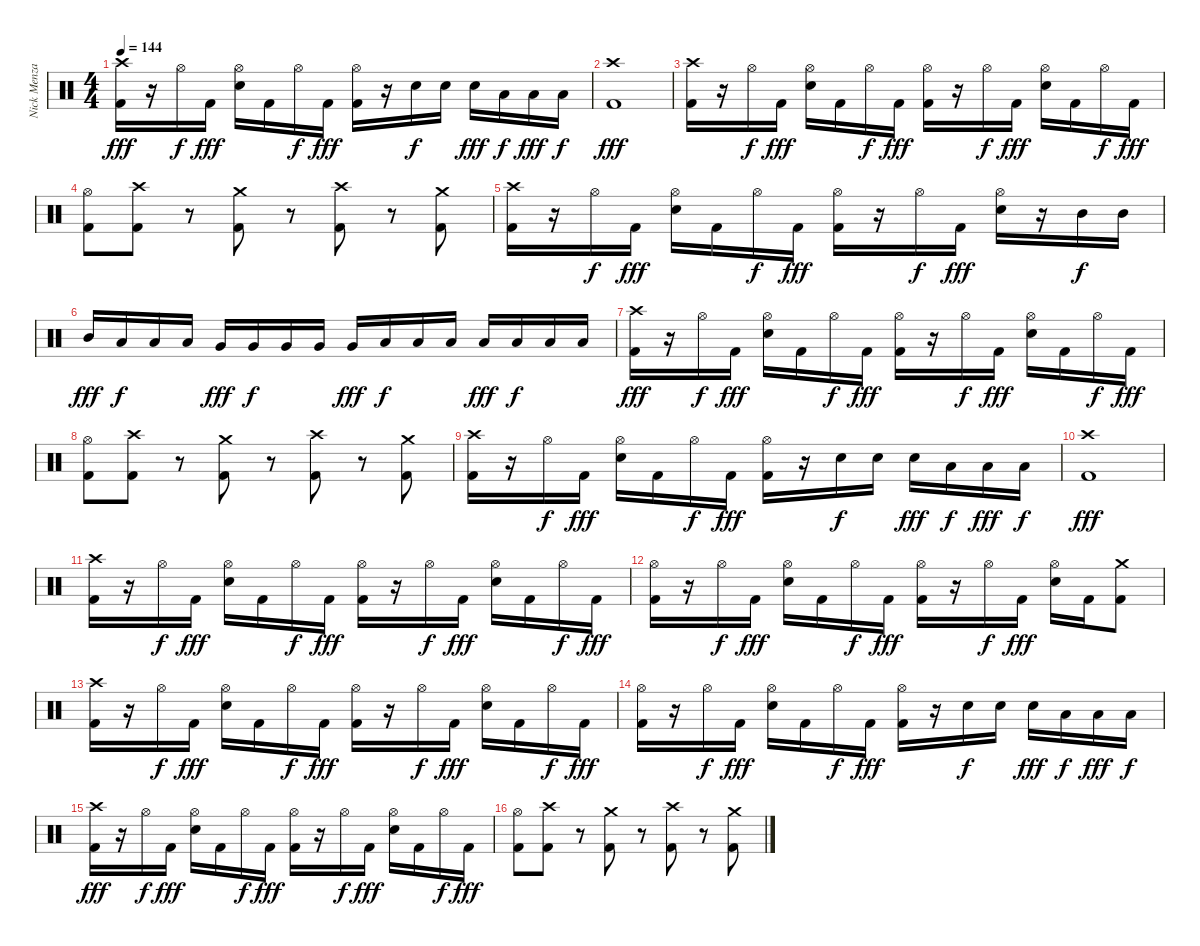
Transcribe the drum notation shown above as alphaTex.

\track ("Nick Menza" "Nick Menza") {instrument percussion}
\staff {score}
\articulation defaults
\ts (4 4)
\tempo 144
\clef neutral
\ks c
("Kick (hit) 2" "Crash high (hit)").16{dy fff} r.16 "Hi-Hat (open)".16{dy f} "Kick (hit) 2".16{dy fff} ("Electric Snare (hit)" "Hi-Hat (open)").16 "Kick (hit) 2".16 "Hi-Hat (open)".16{dy f} "Kick (hit) 2".16{dy fff} ("Kick (hit) 2" "Hi-Hat (open)").16 r.16 "Electric Snare (hit)".16{dy f} "Electric Snare (hit)".16 "Electric Snare (hit)".16{dy fff} "Low Tom (hit)".16{dy f} "Low Tom (hit)".16{dy fff} "Low Tom (hit)".16{dy f} |
("Kick (hit) 2" "Crash high (hit)").1{dy fff} |
("Kick (hit) 2" "Crash high (hit)").16 r.16 "Hi-Hat (open)".16{dy f} "Kick (hit) 2".16{dy fff} ("Electric Snare (hit)" "Hi-Hat (open)").16 "Kick (hit) 2".16 "Hi-Hat (open)".16{dy f} "Kick (hit) 2".16{dy fff} ("Kick (hit) 2" "Hi-Hat (open)").16 r.16 "Hi-Hat (open)".16{dy f} "Kick (hit) 2".16{dy fff} ("Electric Snare (hit)" "Hi-Hat (open)").16 "Kick (hit) 2".16 "Hi-Hat (open)".16{dy f} "Kick (hit) 2".16{dy fff} |
("Kick (hit) 2" "Hi-Hat (open)").8 ("Kick (hit) 2" "Crash high (hit)").8 r.8 ("Kick (hit) 2" "Crash medium (hit)").8 r.8 ("Kick (hit) 2" "Crash high (hit)").8 r.8 ("Kick (hit) 2" "Crash medium (hit)").8 |
("Kick (hit) 2" "Crash high (hit)").16 r.16 "Hi-Hat (open)".16{dy f} "Kick (hit) 2".16{dy fff} ("Electric Snare (hit)" "Hi-Hat (open)").16 "Kick (hit) 2".16 "Hi-Hat (open)".16{dy f} "Kick (hit) 2".16{dy fff} ("Kick (hit) 2" "Hi-Hat (open)").16 r.16 "Hi-Hat (open)".16{dy f} "Kick (hit) 2".16{dy fff} ("Electric Snare (hit)" "Hi-Hat (open)").16 r.16 "Mid Tom (hit)".16{dy f} "Mid Tom (hit)".16 |
"Mid Tom (hit)".16{dy fff} "Low Tom (hit)".16{dy f} "Low Tom (hit)".16 "Low Tom (hit)".16 "Very Low Tom (hit)".16{dy fff} "Very Low Tom (hit)".16{dy f} "Very Low Tom (hit)".16 "Very Low Tom (hit)".16 "Very Low Tom (hit)".16{dy fff} "Low Floor Tom (hit)".16{dy f} "Low Floor Tom (hit)".16 "Low Floor Tom (hit)".16 "Low Floor Tom (hit)".16{dy fff} "Low Floor Tom (hit)".16{dy f} "Low Floor Tom (hit)".16 "Low Floor Tom (hit)".16 |
("Kick (hit) 2" "Crash high (hit)").16{dy fff} r.16 "Hi-Hat (open)".16{dy f} "Kick (hit) 2".16{dy fff} ("Electric Snare (hit)" "Hi-Hat (open)").16 "Kick (hit) 2".16 "Hi-Hat (open)".16{dy f} "Kick (hit) 2".16{dy fff} ("Kick (hit) 2" "Hi-Hat (open)").16 r.16 "Hi-Hat (open)".16{dy f} "Kick (hit) 2".16{dy fff} ("Electric Snare (hit)" "Hi-Hat (open)").16 "Kick (hit) 2".16 "Hi-Hat (open)".16{dy f} "Kick (hit) 2".16{dy fff} |
("Kick (hit) 2" "Hi-Hat (open)").8 ("Kick (hit) 2" "Crash high (hit)").8 r.8 ("Kick (hit) 2" "Crash medium (hit)").8 r.8 ("Kick (hit) 2" "Crash high (hit)").8 r.8 ("Kick (hit) 2" "Crash medium (hit)").8 |
("Kick (hit) 2" "Crash high (hit)").16 r.16 "Hi-Hat (open)".16{dy f} "Kick (hit) 2".16{dy fff} ("Electric Snare (hit)" "Hi-Hat (open)").16 "Kick (hit) 2".16 "Hi-Hat (open)".16{dy f} "Kick (hit) 2".16{dy fff} ("Kick (hit) 2" "Hi-Hat (open)").16 r.16 "Electric Snare (hit)".16{dy f} "Electric Snare (hit)".16 "Electric Snare (hit)".16{dy fff} "Low Tom (hit)".16{dy f} "Low Tom (hit)".16{dy fff} "Low Tom (hit)".16{dy f} |
("Kick (hit) 2" "Crash high (hit)").1{dy fff} |
("Kick (hit) 2" "Crash high (hit)").16 r.16 "Hi-Hat (open)".16{dy f} "Kick (hit) 2".16{dy fff} ("Electric Snare (hit)" "Hi-Hat (open)").16 "Kick (hit) 2".16 "Hi-Hat (open)".16{dy f} "Kick (hit) 2".16{dy fff} ("Kick (hit) 2" "Hi-Hat (open)").16 r.16 "Hi-Hat (open)".16{dy f} "Kick (hit) 2".16{dy fff} ("Electric Snare (hit)" "Hi-Hat (open)").16 "Kick (hit) 2".16 "Hi-Hat (open)".16{dy f} "Kick (hit) 2".16{dy fff} |
("Kick (hit) 2" "Hi-Hat (open)").16 r.16 "Hi-Hat (open)".16{dy f} "Kick (hit) 2".16{dy fff} ("Electric Snare (hit)" "Hi-Hat (open)").16 "Kick (hit) 2".16 "Hi-Hat (open)".16{dy f} "Kick (hit) 2".16{dy fff} ("Kick (hit) 2" "Hi-Hat (open)").16 r.16 "Hi-Hat (open)".16{dy f} "Kick (hit) 2".16{dy fff} ("Electric Snare (hit)" "Hi-Hat (open)").16 "Kick (hit) 2".16 ("Kick (hit) 2" "Crash medium (hit)").8 |
("Kick (hit) 2" "Crash high (hit)").16 r.16 "Hi-Hat (open)".16{dy f} "Kick (hit) 2".16{dy fff} ("Electric Snare (hit)" "Hi-Hat (open)").16 "Kick (hit) 2".16 "Hi-Hat (open)".16{dy f} "Kick (hit) 2".16{dy fff} ("Kick (hit) 2" "Hi-Hat (open)").16 r.16 "Hi-Hat (open)".16{dy f} "Kick (hit) 2".16{dy fff} ("Electric Snare (hit)" "Hi-Hat (open)").16 "Kick (hit) 2".16 "Hi-Hat (open)".16{dy f} "Kick (hit) 2".16{dy fff} |
("Kick (hit) 2" "Hi-Hat (open)").16 r.16 "Hi-Hat (open)".16{dy f} "Kick (hit) 2".16{dy fff} ("Electric Snare (hit)" "Hi-Hat (open)").16 "Kick (hit) 2".16 "Hi-Hat (open)".16{dy f} "Kick (hit) 2".16{dy fff} ("Kick (hit) 2" "Hi-Hat (open)").16 r.16 "Electric Snare (hit)".16{dy f} "Electric Snare (hit)".16 "Electric Snare (hit)".16{dy fff} "Low Tom (hit)".16{dy f} "Low Tom (hit)".16{dy fff} "Low Tom (hit)".16{dy f} |
("Kick (hit) 2" "Crash high (hit)").16{dy fff} r.16 "Hi-Hat (open)".16{dy f} "Kick (hit) 2".16{dy fff} ("Electric Snare (hit)" "Hi-Hat (open)").16 "Kick (hit) 2".16 "Hi-Hat (open)".16{dy f} "Kick (hit) 2".16{dy fff} ("Kick (hit) 2" "Hi-Hat (open)").16 r.16 "Hi-Hat (open)".16{dy f} "Kick (hit) 2".16{dy fff} ("Electric Snare (hit)" "Hi-Hat (open)").16 "Kick (hit) 2".16 "Hi-Hat (open)".16{dy f} "Kick (hit) 2".16{dy fff} |
("Kick (hit) 2" "Hi-Hat (open)").8 ("Kick (hit) 2" "Crash high (hit)").8 r.8 ("Kick (hit) 2" "Crash medium (hit)").8 r.8 ("Kick (hit) 2" "Crash high (hit)").8 r.8 ("Kick (hit) 2" "Crash medium (hit)").8
